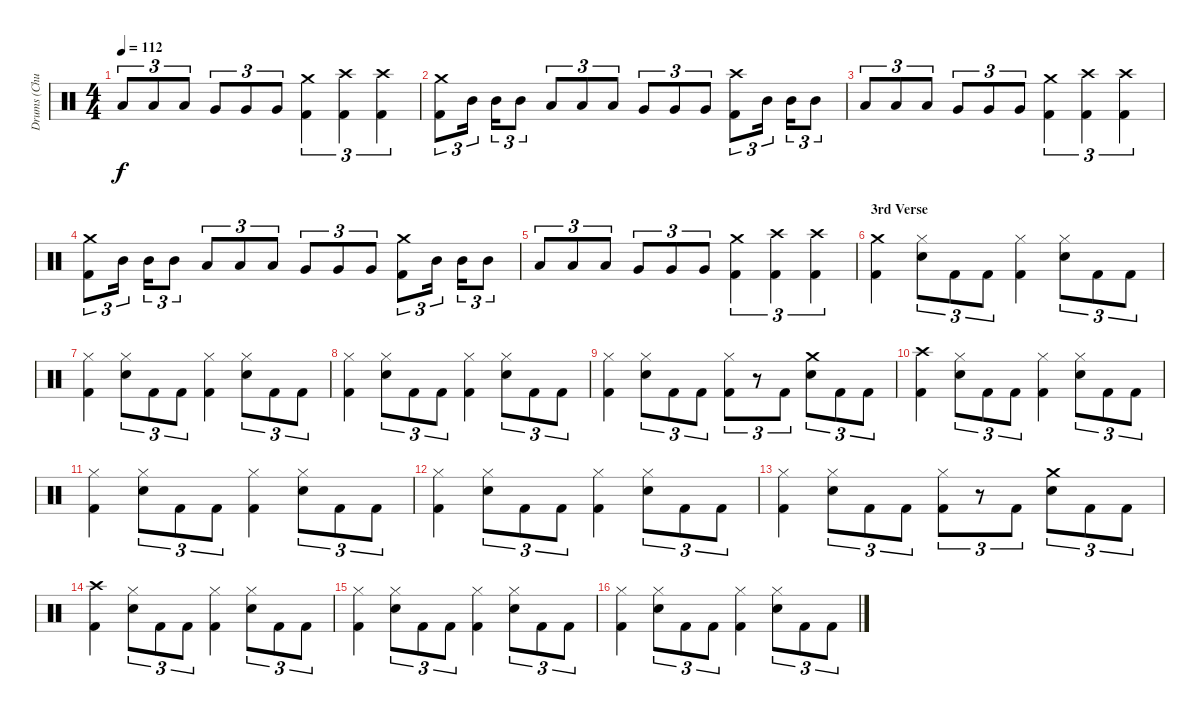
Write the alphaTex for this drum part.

\track ("Drums (Chuck Behler)" "Drums (Chu") {instrument percussion}
\staff {score}
\articulation defaults
\ts (4 4)
\tempo 112
\clef neutral
\ks c "Low Tom (hit)".8{tu (3 2) dy f} "Low Tom (hit)".8{tu (3 2)} "Low Tom (hit)".8{tu (3 2)} "Very Low Tom (hit)".8{tu (3 2)} "Very Low Tom (hit)".8{tu (3 2)} "Very Low Tom (hit)".8{tu (3 2)}
("Crash medium (hit)" "Kick (hit) 2").4{tu (3 2)} ("Crash high (hit)" "Kick (hit) 2").4{tu (3 2)} ("Crash high (hit)" "Kick (hit) 2").4{tu (3 2)} |
("Crash medium (hit)" "Kick (hit) 2").8{tu (3 2)} "Mid Tom (hit)".16{tu (3 2)} "Mid Tom (hit)".16{tu (3 2)} "Mid Tom (hit)".8{tu (3 2)} "Low Tom (hit)".8{tu (3 2)} "Low Tom (hit)".8{tu (3 2)} "Low Tom (hit)".8{tu (3 2)} "Very Low Tom (hit)".8{tu (3 2)} "Very Low Tom (hit)".8{tu (3 2)} "Very Low Tom (hit)".8{tu (3 2)} ("Crash high (hit)" "Kick (hit) 2").8{tu (3 2)} "Mid Tom (hit)".16{tu (3 2)} "Mid Tom (hit)".16{tu (3 2)} "Mid Tom (hit)".8{tu (3 2)} |
"Low Tom (hit)".8{tu (3 2)} "Low Tom (hit)".8{tu (3 2)} "Low Tom (hit)".8{tu (3 2)} "Very Low Tom (hit)".8{tu (3 2)} "Very Low Tom (hit)".8{tu (3 2)} "Very Low Tom (hit)".8{tu (3 2)} ("Crash medium (hit)" "Kick (hit) 2").4{tu (3 2)} ("Crash high (hit)" "Kick (hit) 2").4{tu (3 2)} ("Crash high (hit)" "Kick (hit) 2").4{tu (3 2)} |
("Crash medium (hit)" "Kick (hit) 2").8{tu (3 2)} "Mid Tom (hit)".16{tu (3 2)} "Mid Tom (hit)".16{tu (3 2)} "Mid Tom (hit)".8{tu (3 2)} "Low Tom (hit)".8{tu (3 2)} "Low Tom (hit)".8{tu (3 2)} "Low Tom (hit)".8{tu (3 2)} "Very Low Tom (hit)".8{tu (3 2)} "Very Low Tom (hit)".8{tu (3 2)} "Very Low Tom (hit)".8{tu (3 2)} ("Crash medium (hit)" "Kick (hit) 2").8{tu (3 2)} "Mid Tom (hit)".16{tu (3 2)} "Mid Tom (hit)".16{tu (3 2)} "Mid Tom (hit)".8{tu (3 2)} |
"Low Tom (hit)".8{tu (3 2)} "Low Tom (hit)".8{tu (3 2)} "Low Tom (hit)".8{tu (3 2)} "Very Low Tom (hit)".8{tu (3 2)} "Very Low Tom (hit)".8{tu (3 2)} "Very Low Tom (hit)".8{tu (3 2)} ("Crash medium (hit)" "Kick (hit) 2").4{tu (3 2)} ("Crash high (hit)" "Kick (hit) 2").4{tu (3 2)} ("Crash high (hit)" "Kick (hit) 2").4{tu (3 2)} |
\section ("" "3rd Verse")
("Crash medium (hit)" "Kick (hit) 2").4 ("Hi-Hat (closed)" "Snare (hit) 2").8{tu (3 2)} "Kick (hit) 2".8{tu (3 2)} "Kick (hit) 2".8{tu (3 2)} ("Hi-Hat (closed)" "Kick (hit) 2").4 ("Hi-Hat (closed)" "Snare (hit) 2").8{tu (3 2)} "Kick (hit) 2".8{tu (3 2)} "Kick (hit) 2".8{tu (3 2)} |
("Hi-Hat (closed)" "Kick (hit) 2").4 ("Hi-Hat (closed)" "Snare (hit) 2").8{tu (3 2)} "Kick (hit) 2".8{tu (3 2)} "Kick (hit) 2".8{tu (3 2)} ("Hi-Hat (closed)" "Kick (hit) 2").4 ("Hi-Hat (closed)" "Snare (hit) 2").8{tu (3 2)} "Kick (hit) 2".8{tu (3 2)} "Kick (hit) 2".8{tu (3 2)} |
("Hi-Hat (closed)" "Kick (hit) 2").4 ("Hi-Hat (closed)" "Snare (hit) 2").8{tu (3 2)} "Kick (hit) 2".8{tu (3 2)} "Kick (hit) 2".8{tu (3 2)} ("Hi-Hat (closed)" "Kick (hit) 2").4 ("Hi-Hat (closed)" "Snare (hit) 2").8{tu (3 2)} "Kick (hit) 2".8{tu (3 2)} "Kick (hit) 2".8{tu (3 2)} |
("Hi-Hat (closed)" "Kick (hit) 2").4 ("Hi-Hat (closed)" "Snare (hit) 2").8{tu (3 2)} "Kick (hit) 2".8{tu (3 2)} "Kick (hit) 2".8{tu (3 2)} ("Hi-Hat (closed)" "Kick (hit) 2").8{tu (3 2)} r.8{tu (3 2)} "Kick (hit) 2".8{tu (3 2)} ("Crash medium (hit)" "Snare (hit) 2").8{tu (3 2)} "Kick (hit) 2".8{tu (3 2)} "Kick (hit) 2".8{tu (3 2)} |
("Crash high (hit)" "Kick (hit) 2").4 ("Hi-Hat (closed)" "Snare (hit) 2").8{tu (3 2)} "Kick (hit) 2".8{tu (3 2)} "Kick (hit) 2".8{tu (3 2)} ("Hi-Hat (closed)" "Kick (hit) 2").4 ("Hi-Hat (closed)" "Snare (hit) 2").8{tu (3 2)} "Kick (hit) 2".8{tu (3 2)} "Kick (hit) 2".8{tu (3 2)} |
("Hi-Hat (closed)" "Kick (hit) 2").4 ("Hi-Hat (closed)" "Snare (hit) 2").8{tu (3 2)} "Kick (hit) 2".8{tu (3 2)} "Kick (hit) 2".8{tu (3 2)} ("Hi-Hat (closed)" "Kick (hit) 2").4 ("Hi-Hat (closed)" "Snare (hit) 2").8{tu (3 2)} "Kick (hit) 2".8{tu (3 2)} "Kick (hit) 2".8{tu (3 2)} |
("Hi-Hat (closed)" "Kick (hit) 2").4 ("Hi-Hat (closed)" "Snare (hit) 2").8{tu (3 2)} "Kick (hit) 2".8{tu (3 2)} "Kick (hit) 2".8{tu (3 2)} ("Hi-Hat (closed)" "Kick (hit) 2").4 ("Hi-Hat (closed)" "Snare (hit) 2").8{tu (3 2)} "Kick (hit) 2".8{tu (3 2)} "Kick (hit) 2".8{tu (3 2)} |
("Hi-Hat (closed)" "Kick (hit) 2").4 ("Hi-Hat (closed)" "Snare (hit) 2").8{tu (3 2)} "Kick (hit) 2".8{tu (3 2)} "Kick (hit) 2".8{tu (3 2)} ("Hi-Hat (closed)" "Kick (hit) 2").8{tu (3 2)} r.8{tu (3 2)} "Kick (hit) 2".8{tu (3 2)} ("Crash medium (hit)" "Snare (hit) 2").8{tu (3 2)} "Kick (hit) 2".8{tu (3 2)} "Kick (hit) 2".8{tu (3 2)} |
("Crash high (hit)" "Kick (hit) 2").4 ("Hi-Hat (closed)" "Snare (hit) 2").8{tu (3 2)} "Kick (hit) 2".8{tu (3 2)} "Kick (hit) 2".8{tu (3 2)} ("Hi-Hat (closed)" "Kick (hit) 2").4 ("Hi-Hat (closed)" "Snare (hit) 2").8{tu (3 2)} "Kick (hit) 2".8{tu (3 2)} "Kick (hit) 2".8{tu (3 2)} |
("Hi-Hat (closed)" "Kick (hit) 2").4 ("Hi-Hat (closed)" "Snare (hit) 2").8{tu (3 2)} "Kick (hit) 2".8{tu (3 2)} "Kick (hit) 2".8{tu (3 2)} ("Hi-Hat (closed)" "Kick (hit) 2").4 ("Hi-Hat (closed)" "Snare (hit) 2").8{tu (3 2)} "Kick (hit) 2".8{tu (3 2)} "Kick (hit) 2".8{tu (3 2)} |
("Hi-Hat (closed)" "Kick (hit) 2").4 ("Hi-Hat (closed)" "Snare (hit) 2").8{tu (3 2)} "Kick (hit) 2".8{tu (3 2)} "Kick (hit) 2".8{tu (3 2)} ("Hi-Hat (closed)" "Kick (hit) 2").4 ("Hi-Hat (closed)" "Snare (hit) 2").8{tu (3 2)} "Kick (hit) 2".8{tu (3 2)} "Kick (hit) 2".8{tu (3 2)}
